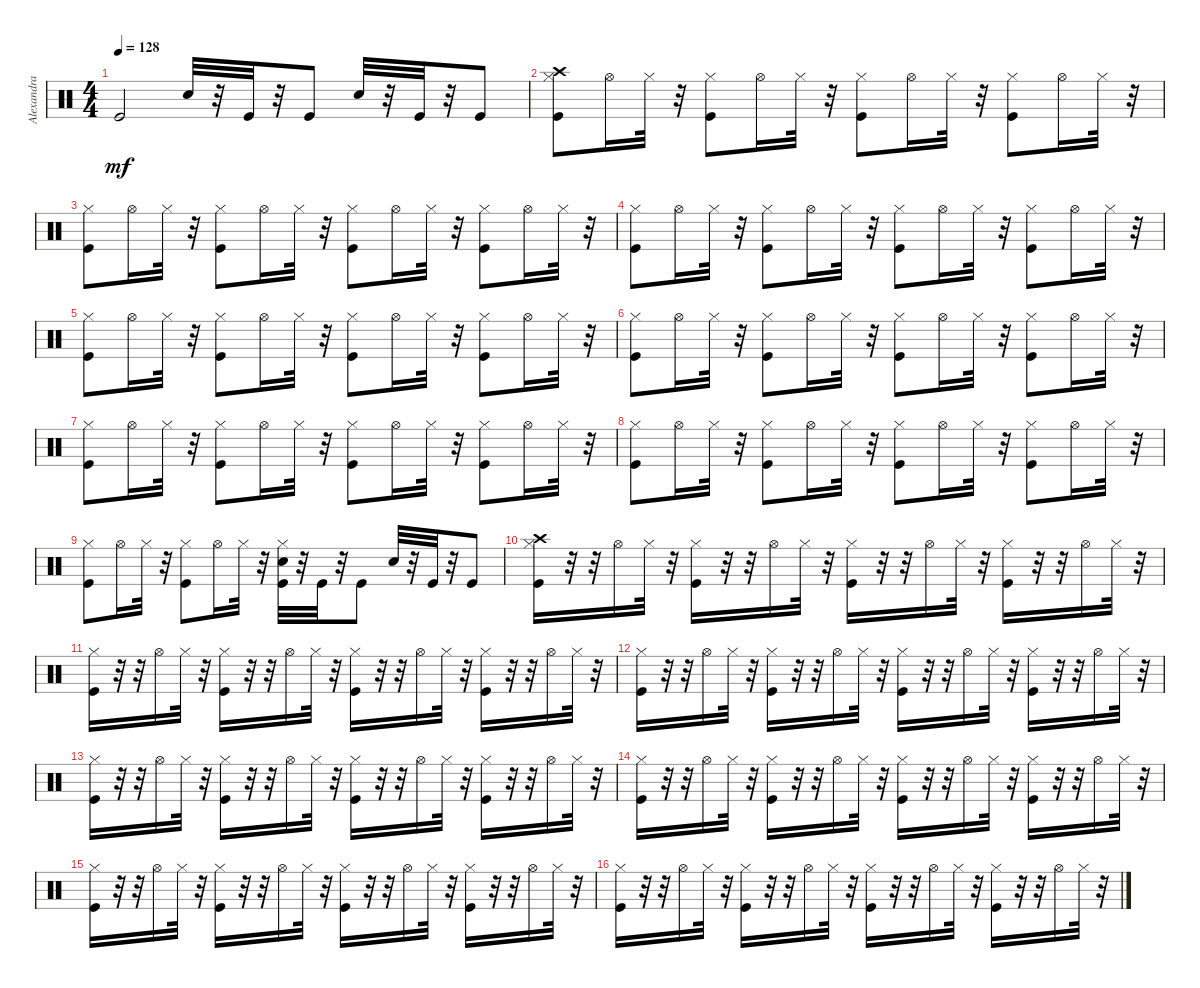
\track ("Alexandra Stan - Mr Saxobeat" "Alexandra ") {instrument percussion}
\staff {score}
\articulation defaults
\ts (4 4)
\tempo 128
\clef neutral
\ks c "Kick (hit)".2{dy mf} "Snare (hit) 2".32
r.32 "Kick (hit)".32 r.32 "Kick (hit)".8 "Snare (hit) 2".32 r.32 "Kick (hit)".32 r.32 "Kick (hit)".8 |
("Kick (hit)" "Hi-Hat (closed)" "Crash high (hit)").8 "Hi-Hat (open)".16 "Hi-Hat (closed)".32 r.32 ("Kick (hit)" "Hi-Hat (closed)").8 "Hi-Hat (open)".16 "Hi-Hat (closed)".32 r.32 ("Kick (hit)" "Hi-Hat (closed)").8 "Hi-Hat (open)".16 "Hi-Hat (closed)".32 r.32 ("Kick (hit)" "Hi-Hat (closed)").8 "Hi-Hat (open)".16 "Hi-Hat (closed)".32 r.32 |
("Kick (hit)" "Hi-Hat (closed)").8 "Hi-Hat (open)".16 "Hi-Hat (closed)".32 r.32 ("Kick (hit)" "Hi-Hat (closed)").8 "Hi-Hat (open)".16 "Hi-Hat (closed)".32 r.32 ("Kick (hit)" "Hi-Hat (closed)").8 "Hi-Hat (open)".16 "Hi-Hat (closed)".32 r.32 ("Kick (hit)" "Hi-Hat (closed)").8 "Hi-Hat (open)".16 "Hi-Hat (closed)".32 r.32 |
("Kick (hit)" "Hi-Hat (closed)").8 "Hi-Hat (open)".16 "Hi-Hat (closed)".32 r.32 ("Kick (hit)" "Hi-Hat (closed)").8 "Hi-Hat (open)".16 "Hi-Hat (closed)".32 r.32 ("Kick (hit)" "Hi-Hat (closed)").8 "Hi-Hat (open)".16 "Hi-Hat (closed)".32 r.32 ("Kick (hit)" "Hi-Hat (closed)").8 "Hi-Hat (open)".16 "Hi-Hat (closed)".32 r.32 |
("Kick (hit)" "Hi-Hat (closed)").8 "Hi-Hat (open)".16 "Hi-Hat (closed)".32 r.32 ("Kick (hit)" "Hi-Hat (closed)").8 "Hi-Hat (open)".16 "Hi-Hat (closed)".32 r.32 ("Kick (hit)" "Hi-Hat (closed)").8 "Hi-Hat (open)".16 "Hi-Hat (closed)".32 r.32 ("Kick (hit)" "Hi-Hat (closed)").8 "Hi-Hat (open)".16 "Hi-Hat (closed)".32 r.32 |
("Kick (hit)" "Hi-Hat (closed)").8 "Hi-Hat (open)".16 "Hi-Hat (closed)".32 r.32 ("Kick (hit)" "Hi-Hat (closed)").8 "Hi-Hat (open)".16 "Hi-Hat (closed)".32 r.32 ("Kick (hit)" "Hi-Hat (closed)").8 "Hi-Hat (open)".16 "Hi-Hat (closed)".32 r.32 ("Kick (hit)" "Hi-Hat (closed)").8 "Hi-Hat (open)".16 "Hi-Hat (closed)".32 r.32 |
("Kick (hit)" "Hi-Hat (closed)").8 "Hi-Hat (open)".16 "Hi-Hat (closed)".32 r.32 ("Kick (hit)" "Hi-Hat (closed)").8 "Hi-Hat (open)".16 "Hi-Hat (closed)".32 r.32 ("Kick (hit)" "Hi-Hat (closed)").8 "Hi-Hat (open)".16 "Hi-Hat (closed)".32 r.32 ("Kick (hit)" "Hi-Hat (closed)").8 "Hi-Hat (open)".16 "Hi-Hat (closed)".32 r.32 |
("Kick (hit)" "Hi-Hat (closed)").8 "Hi-Hat (open)".16 "Hi-Hat (closed)".32 r.32 ("Kick (hit)" "Hi-Hat (closed)").8 "Hi-Hat (open)".16 "Hi-Hat (closed)".32 r.32 ("Kick (hit)" "Hi-Hat (closed)").8 "Hi-Hat (open)".16 "Hi-Hat (closed)".32 r.32 ("Kick (hit)" "Hi-Hat (closed)").8 "Hi-Hat (open)".16 "Hi-Hat (closed)".32 r.32 |
("Kick (hit)" "Hi-Hat (closed)").8 "Hi-Hat (open)".16 "Hi-Hat (closed)".32 r.32 ("Kick (hit)" "Hi-Hat (closed)").8 "Hi-Hat (open)".16 "Hi-Hat (closed)".32 r.32 ("Kick (hit)" "Snare (hit) 2" "Hi-Hat (closed)").32 r.32 "Kick (hit)".32 r.32 "Kick (hit)".8 "Snare (hit) 2".32 r.32 "Kick (hit)".32 r.32 "Kick (hit)".8 |
("Kick (hit)" "Hi-Hat (closed)" "Crash high (hit)").16 r.32 r.32 "Hi-Hat (open)".16 "Hi-Hat (closed)".32 r.32 ("Kick (hit)" "Hi-Hat (closed)").16 r.32 r.32 "Hi-Hat (open)".16 "Hi-Hat (closed)".32 r.32 ("Kick (hit)" "Hi-Hat (closed)").16 r.32 r.32 "Hi-Hat (open)".16 "Hi-Hat (closed)".32 r.32 ("Kick (hit)" "Hi-Hat (closed)").16 r.32 r.32 "Hi-Hat (open)".16 "Hi-Hat (closed)".32 r.32 |
("Kick (hit)" "Hi-Hat (closed)").16 r.32 r.32 "Hi-Hat (open)".16 "Hi-Hat (closed)".32 r.32 ("Kick (hit)" "Hi-Hat (closed)").16 r.32 r.32 "Hi-Hat (open)".16 "Hi-Hat (closed)".32 r.32 ("Kick (hit)" "Hi-Hat (closed)").16 r.32 r.32 "Hi-Hat (open)".16 "Hi-Hat (closed)".32 r.32 ("Kick (hit)" "Hi-Hat (closed)").16 r.32 r.32 "Hi-Hat (open)".16 "Hi-Hat (closed)".32 r.32 |
("Kick (hit)" "Hi-Hat (closed)").16 r.32 r.32 "Hi-Hat (open)".16 "Hi-Hat (closed)".32 r.32 ("Kick (hit)" "Hi-Hat (closed)").16 r.32 r.32 "Hi-Hat (open)".16 "Hi-Hat (closed)".32 r.32 ("Kick (hit)" "Hi-Hat (closed)").16 r.32 r.32 "Hi-Hat (open)".16 "Hi-Hat (closed)".32 r.32 ("Kick (hit)" "Hi-Hat (closed)").16 r.32 r.32 "Hi-Hat (open)".16 "Hi-Hat (closed)".32 r.32 |
("Kick (hit)" "Hi-Hat (closed)").16 r.32 r.32 "Hi-Hat (open)".16 "Hi-Hat (closed)".32 r.32 ("Kick (hit)" "Hi-Hat (closed)").16 r.32 r.32 "Hi-Hat (open)".16 "Hi-Hat (closed)".32 r.32 ("Kick (hit)" "Hi-Hat (closed)").16 r.32 r.32 "Hi-Hat (open)".16 "Hi-Hat (closed)".32 r.32 ("Kick (hit)" "Hi-Hat (closed)").16 r.32 r.32 "Hi-Hat (open)".16 "Hi-Hat (closed)".32 r.32 |
("Kick (hit)" "Hi-Hat (closed)").16 r.32 r.32 "Hi-Hat (open)".16 "Hi-Hat (closed)".32 r.32 ("Kick (hit)" "Hi-Hat (closed)").16 r.32 r.32 "Hi-Hat (open)".16 "Hi-Hat (closed)".32 r.32 ("Kick (hit)" "Hi-Hat (closed)").16 r.32 r.32 "Hi-Hat (open)".16 "Hi-Hat (closed)".32 r.32 ("Kick (hit)" "Hi-Hat (closed)").16 r.32 r.32 "Hi-Hat (open)".16 "Hi-Hat (closed)".32 r.32 |
("Kick (hit)" "Hi-Hat (closed)").16 r.32 r.32 "Hi-Hat (open)".16 "Hi-Hat (closed)".32 r.32 ("Kick (hit)" "Hi-Hat (closed)").16 r.32 r.32 "Hi-Hat (open)".16 "Hi-Hat (closed)".32 r.32 ("Kick (hit)" "Hi-Hat (closed)").16 r.32 r.32 "Hi-Hat (open)".16 "Hi-Hat (closed)".32 r.32 ("Kick (hit)" "Hi-Hat (closed)").16 r.32 r.32 "Hi-Hat (open)".16 "Hi-Hat (closed)".32 r.32 |
("Kick (hit)" "Hi-Hat (closed)").16 r.32 r.32 "Hi-Hat (open)".16 "Hi-Hat (closed)".32 r.32 ("Kick (hit)" "Hi-Hat (closed)").16 r.32 r.32 "Hi-Hat (open)".16 "Hi-Hat (closed)".32 r.32 ("Kick (hit)" "Hi-Hat (closed)").16 r.32 r.32 "Hi-Hat (open)".16 "Hi-Hat (closed)".32 r.32 ("Kick (hit)" "Hi-Hat (closed)").16 r.32 r.32 "Hi-Hat (open)".16 "Hi-Hat (closed)".32 r.32
